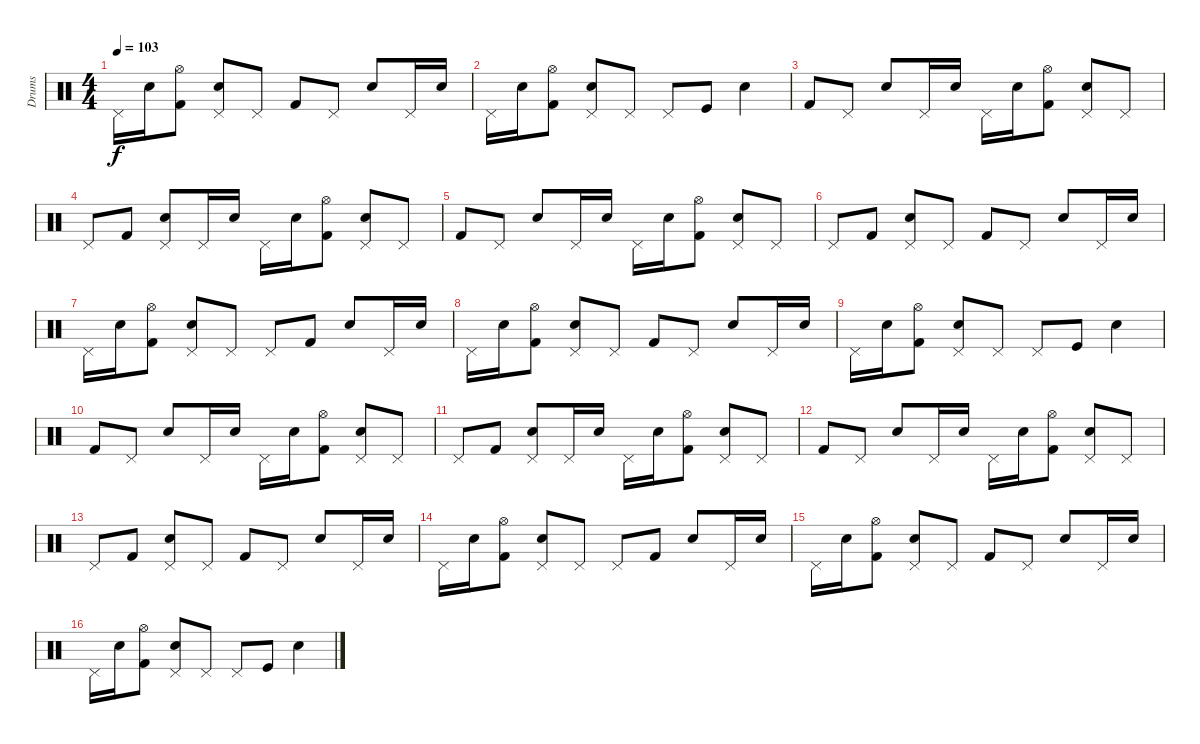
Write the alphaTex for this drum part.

\track ("Drums" "Drums") {instrument percussion}
\staff {score}
\articulation defaults
\ts (4 4)
\tempo 103
\clef neutral
\ks c "Pedal Hi-Hat (hit)".16{dy f} "Electric Snare (hit)".16
("Hi-Hat (open)" "Kick (hit) 2").8 ("Pedal Hi-Hat (hit)" "Electric Snare (hit)").8 "Pedal Hi-Hat (hit)".8 "Kick (hit) 2".8 "Pedal Hi-Hat (hit)".8 "Electric Snare (hit)".8 "Pedal Hi-Hat (hit)".16 "Electric Snare (hit)".16 |
"Pedal Hi-Hat (hit)".16 "Electric Snare (hit)".16 ("Hi-Hat (open)" "Kick (hit) 2").8 ("Pedal Hi-Hat (hit)" "Electric Snare (hit)").8 "Pedal Hi-Hat (hit)".8 "Pedal Hi-Hat (hit)".8 "Kick (hit)".8 "Electric Snare (hit)".4 |
"Kick (hit) 2".8{volume 7} "Pedal Hi-Hat (hit)".8 "Electric Snare (hit)".8 "Pedal Hi-Hat (hit)".16 "Electric Snare (hit)".16 "Pedal Hi-Hat (hit)".16 "Electric Snare (hit)".16 ("Hi-Hat (open)" "Kick (hit) 2").8 ("Pedal Hi-Hat (hit)" "Electric Snare (hit)").8 "Pedal Hi-Hat (hit)".8 |
"Pedal Hi-Hat (hit)".8{volume 7} "Kick (hit) 2".8 ("Pedal Hi-Hat (hit)" "Electric Snare (hit)").8 "Pedal Hi-Hat (hit)".16 "Electric Snare (hit)".16 "Pedal Hi-Hat (hit)".16 "Electric Snare (hit)".16 ("Hi-Hat (open)" "Kick (hit) 2").8 ("Pedal Hi-Hat (hit)" "Electric Snare (hit)").8 "Pedal Hi-Hat (hit)".8 |
"Kick (hit) 2".8{volume 7} "Pedal Hi-Hat (hit)".8 "Electric Snare (hit)".8 "Pedal Hi-Hat (hit)".16 "Electric Snare (hit)".16 "Pedal Hi-Hat (hit)".16 "Electric Snare (hit)".16 ("Hi-Hat (open)" "Kick (hit) 2").8 ("Pedal Hi-Hat (hit)" "Electric Snare (hit)").8 "Pedal Hi-Hat (hit)".8 |
"Pedal Hi-Hat (hit)".8{volume 7} "Kick (hit) 2".8 ("Pedal Hi-Hat (hit)" "Electric Snare (hit)").8 "Pedal Hi-Hat (hit)".8 "Kick (hit) 2".8 "Pedal Hi-Hat (hit)".8 "Electric Snare (hit)".8 "Pedal Hi-Hat (hit)".16 "Electric Snare (hit)".16 |
"Pedal Hi-Hat (hit)".16{volume 7} "Electric Snare (hit)".16 ("Hi-Hat (open)" "Kick (hit) 2").8 ("Pedal Hi-Hat (hit)" "Electric Snare (hit)").8 "Pedal Hi-Hat (hit)".8 "Pedal Hi-Hat (hit)".8 "Kick (hit) 2".8 "Electric Snare (hit)".8 "Pedal Hi-Hat (hit)".16 "Electric Snare (hit)".16 |
"Pedal Hi-Hat (hit)".16{volume 7} "Electric Snare (hit)".16 ("Hi-Hat (open)" "Kick (hit) 2").8 ("Pedal Hi-Hat (hit)" "Electric Snare (hit)").8 "Pedal Hi-Hat (hit)".8 "Kick (hit) 2".8 "Pedal Hi-Hat (hit)".8 "Electric Snare (hit)".8 "Pedal Hi-Hat (hit)".16 "Electric Snare (hit)".16 |
"Pedal Hi-Hat (hit)".16 "Electric Snare (hit)".16 ("Hi-Hat (open)" "Kick (hit) 2").8 ("Pedal Hi-Hat (hit)" "Electric Snare (hit)").8 "Pedal Hi-Hat (hit)".8 "Pedal Hi-Hat (hit)".8 "Kick (hit)".8 "Electric Snare (hit)".4 |
"Kick (hit) 2".8{volume 16} "Pedal Hi-Hat (hit)".8 "Electric Snare (hit)".8 "Pedal Hi-Hat (hit)".16 "Electric Snare (hit)".16 "Pedal Hi-Hat (hit)".16 "Electric Snare (hit)".16 ("Hi-Hat (open)" "Kick (hit) 2").8 ("Pedal Hi-Hat (hit)" "Electric Snare (hit)").8 "Pedal Hi-Hat (hit)".8 |
"Pedal Hi-Hat (hit)".8 "Kick (hit) 2".8 ("Pedal Hi-Hat (hit)" "Electric Snare (hit)").8 "Pedal Hi-Hat (hit)".16 "Electric Snare (hit)".16 "Pedal Hi-Hat (hit)".16 "Electric Snare (hit)".16 ("Hi-Hat (open)" "Kick (hit) 2").8 ("Pedal Hi-Hat (hit)" "Electric Snare (hit)").8 "Pedal Hi-Hat (hit)".8 |
"Kick (hit) 2".8 "Pedal Hi-Hat (hit)".8 "Electric Snare (hit)".8 "Pedal Hi-Hat (hit)".16 "Electric Snare (hit)".16 "Pedal Hi-Hat (hit)".16 "Electric Snare (hit)".16 ("Hi-Hat (open)" "Kick (hit) 2").8 ("Pedal Hi-Hat (hit)" "Electric Snare (hit)").8 "Pedal Hi-Hat (hit)".8 |
"Pedal Hi-Hat (hit)".8 "Kick (hit) 2".8 ("Pedal Hi-Hat (hit)" "Electric Snare (hit)").8 "Pedal Hi-Hat (hit)".8 "Kick (hit) 2".8 "Pedal Hi-Hat (hit)".8 "Electric Snare (hit)".8 "Pedal Hi-Hat (hit)".16 "Electric Snare (hit)".16 |
"Pedal Hi-Hat (hit)".16 "Electric Snare (hit)".16 ("Hi-Hat (open)" "Kick (hit) 2").8 ("Pedal Hi-Hat (hit)" "Electric Snare (hit)").8 "Pedal Hi-Hat (hit)".8 "Pedal Hi-Hat (hit)".8 "Kick (hit) 2".8 "Electric Snare (hit)".8 "Pedal Hi-Hat (hit)".16 "Electric Snare (hit)".16 |
"Pedal Hi-Hat (hit)".16 "Electric Snare (hit)".16 ("Hi-Hat (open)" "Kick (hit) 2").8 ("Pedal Hi-Hat (hit)" "Electric Snare (hit)").8 "Pedal Hi-Hat (hit)".8 "Kick (hit) 2".8 "Pedal Hi-Hat (hit)".8 "Electric Snare (hit)".8 "Pedal Hi-Hat (hit)".16 "Electric Snare (hit)".16 |
"Pedal Hi-Hat (hit)".16 "Electric Snare (hit)".16 ("Hi-Hat (open)" "Kick (hit) 2").8 ("Pedal Hi-Hat (hit)" "Electric Snare (hit)").8 "Pedal Hi-Hat (hit)".8 "Pedal Hi-Hat (hit)".8 "Kick (hit)".8 "Electric Snare (hit)".4
